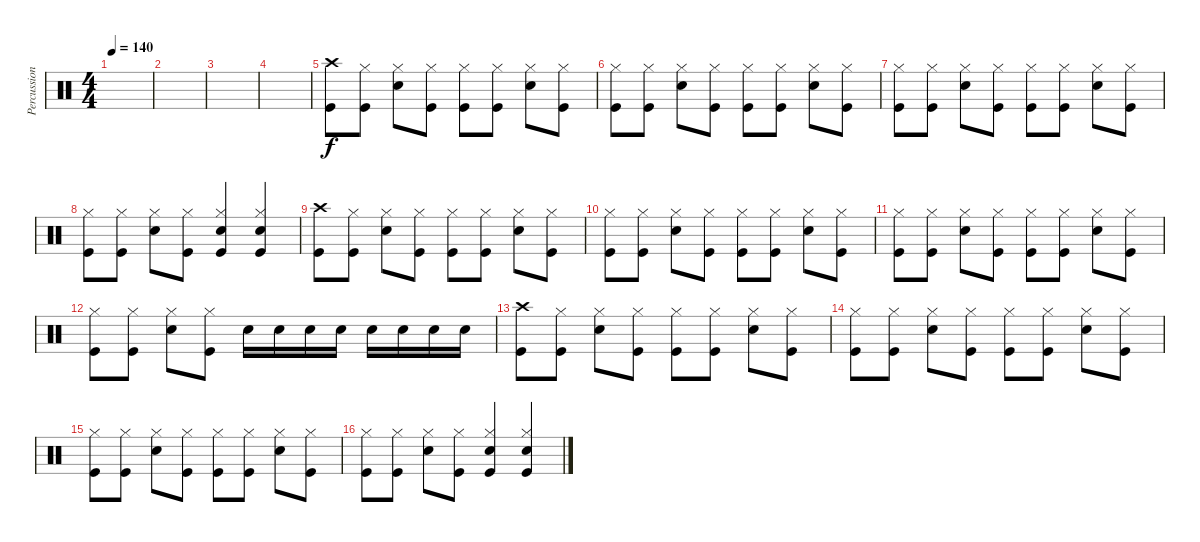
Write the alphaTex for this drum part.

\track ("Percussioni" "Percussion") {instrument percussion}
\staff {score}
\articulation defaults
\ts (4 4)
\tempo 140
\clef neutral
\ks c
|
|
|
|
("Crash high (hit)" "Kick (hit)").8 ("Hi-Hat (closed)" "Kick (hit)").8 ("Hi-Hat (closed)" "Snare (hit) 2").8 ("Hi-Hat (closed)" "Kick (hit)").8 ("Hi-Hat (closed)" "Kick (hit)").8 ("Hi-Hat (closed)" "Kick (hit)").8 ("Hi-Hat (closed)" "Snare (hit) 2").8 ("Hi-Hat (closed)" "Kick (hit)").8 |
("Hi-Hat (closed)" "Kick (hit)").8 ("Hi-Hat (closed)" "Kick (hit)").8 ("Hi-Hat (closed)" "Snare (hit) 2").8 ("Hi-Hat (closed)" "Kick (hit)").8 ("Hi-Hat (closed)" "Kick (hit)").8 ("Hi-Hat (closed)" "Kick (hit)").8 ("Hi-Hat (closed)" "Snare (hit) 2").8 ("Hi-Hat (closed)" "Kick (hit)").8 |
("Hi-Hat (closed)" "Kick (hit)").8 ("Hi-Hat (closed)" "Kick (hit)").8 ("Hi-Hat (closed)" "Snare (hit) 2").8 ("Hi-Hat (closed)" "Kick (hit)").8 ("Hi-Hat (closed)" "Kick (hit)").8 ("Hi-Hat (closed)" "Kick (hit)").8 ("Hi-Hat (closed)" "Snare (hit) 2").8 ("Hi-Hat (closed)" "Kick (hit)").8 |
("Hi-Hat (closed)" "Kick (hit)").8 ("Hi-Hat (closed)" "Kick (hit)").8 ("Hi-Hat (closed)" "Snare (hit) 2").8 ("Hi-Hat (closed)" "Kick (hit)").8 ("Hi-Hat (closed)" "Snare (hit) 2" "Kick (hit)").4 ("Hi-Hat (closed)" "Snare (hit) 2" "Kick (hit)").4 |
("Crash high (hit)" "Kick (hit)").8 ("Hi-Hat (closed)" "Kick (hit)").8 ("Hi-Hat (closed)" "Snare (hit) 2").8 ("Hi-Hat (closed)" "Kick (hit)").8 ("Hi-Hat (closed)" "Kick (hit)").8 ("Hi-Hat (closed)" "Kick (hit)").8 ("Hi-Hat (closed)" "Snare (hit) 2").8 ("Hi-Hat (closed)" "Kick (hit)").8 |
("Hi-Hat (closed)" "Kick (hit)").8 ("Hi-Hat (closed)" "Kick (hit)").8 ("Hi-Hat (closed)" "Snare (hit) 2").8 ("Hi-Hat (closed)" "Kick (hit)").8 ("Hi-Hat (closed)" "Kick (hit)").8 ("Hi-Hat (closed)" "Kick (hit)").8 ("Hi-Hat (closed)" "Snare (hit) 2").8 ("Hi-Hat (closed)" "Kick (hit)").8 |
("Hi-Hat (closed)" "Kick (hit)").8 ("Hi-Hat (closed)" "Kick (hit)").8 ("Hi-Hat (closed)" "Snare (hit) 2").8 ("Hi-Hat (closed)" "Kick (hit)").8 ("Hi-Hat (closed)" "Kick (hit)").8 ("Hi-Hat (closed)" "Kick (hit)").8 ("Hi-Hat (closed)" "Snare (hit) 2").8 ("Hi-Hat (closed)" "Kick (hit)").8 |
("Hi-Hat (closed)" "Kick (hit)").8 ("Hi-Hat (closed)" "Kick (hit)").8 ("Hi-Hat (closed)" "Snare (hit) 2").8 ("Hi-Hat (closed)" "Kick (hit)").8 "Snare (hit) 2".16 "Snare (hit) 2".16 "Snare (hit) 2".16 "Snare (hit) 2".16 "Snare (hit) 2".16 "Snare (hit) 2".16 "Snare (hit) 2".16 "Snare (hit) 2".16 |
("Crash high (hit)" "Kick (hit)").8 ("Hi-Hat (closed)" "Kick (hit)").8 ("Hi-Hat (closed)" "Snare (hit) 2").8 ("Hi-Hat (closed)" "Kick (hit)").8 ("Hi-Hat (closed)" "Kick (hit)").8 ("Hi-Hat (closed)" "Kick (hit)").8 ("Hi-Hat (closed)" "Snare (hit) 2").8 ("Hi-Hat (closed)" "Kick (hit)").8 |
("Hi-Hat (closed)" "Kick (hit)").8 ("Hi-Hat (closed)" "Kick (hit)").8 ("Hi-Hat (closed)" "Snare (hit) 2").8 ("Hi-Hat (closed)" "Kick (hit)").8 ("Hi-Hat (closed)" "Kick (hit)").8 ("Hi-Hat (closed)" "Kick (hit)").8 ("Hi-Hat (closed)" "Snare (hit) 2").8 ("Hi-Hat (closed)" "Kick (hit)").8 |
("Hi-Hat (closed)" "Kick (hit)").8 ("Hi-Hat (closed)" "Kick (hit)").8 ("Hi-Hat (closed)" "Snare (hit) 2").8 ("Hi-Hat (closed)" "Kick (hit)").8 ("Hi-Hat (closed)" "Kick (hit)").8 ("Hi-Hat (closed)" "Kick (hit)").8 ("Hi-Hat (closed)" "Snare (hit) 2").8 ("Hi-Hat (closed)" "Kick (hit)").8 |
("Hi-Hat (closed)" "Kick (hit)").8 ("Hi-Hat (closed)" "Kick (hit)").8 ("Hi-Hat (closed)" "Snare (hit) 2").8 ("Hi-Hat (closed)" "Kick (hit)").8 ("Hi-Hat (closed)" "Snare (hit) 2" "Kick (hit)").4 ("Hi-Hat (closed)" "Snare (hit) 2" "Kick (hit)").4
